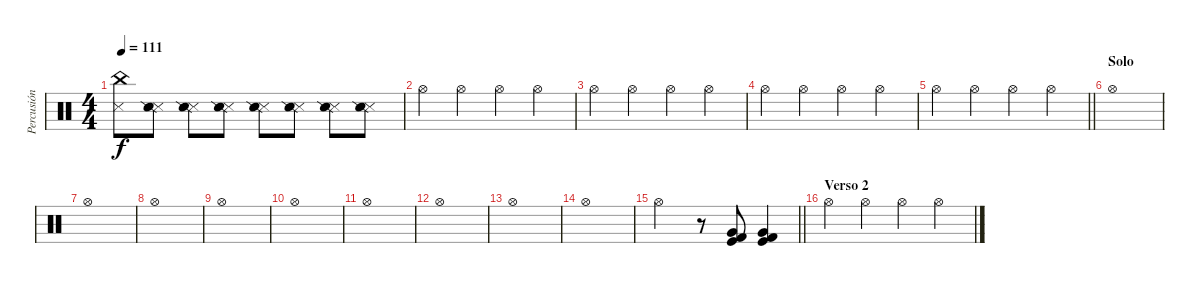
\track ("Percusión" "Percusión") {instrument percussion}
\staff {score}
\articulation defaults
\ts (4 4)
\tempo 111
\clef neutral
\ks c
("Snare (side stick) 3" "China (hit)").8{dy f} ("Snare (side stick) 3" "Snare (side stick) 2").8 ("Snare (side stick) 3" "Snare (side stick) 2").8 ("Snare (side stick) 3" "Snare (side stick) 2").8 ("Snare (side stick) 3" "Snare (side stick) 2").8 ("Snare (side stick) 3" "Snare (side stick) 2").8 ("Snare (side stick) 3" "Snare (side stick) 2").8 ("Snare (side stick) 3" "Snare (side stick) 2").8 |
"Hi-Hat (open)".4 "Hi-Hat (open)".4 "Hi-Hat (open)".4 "Hi-Hat (open)".4 |
"Hi-Hat (open)".4 "Hi-Hat (open)".4 "Hi-Hat (open)".4 "Hi-Hat (open)".4 |
"Hi-Hat (open)".4 "Hi-Hat (open)".4 "Hi-Hat (open)".4 "Hi-Hat (open)".4 |
\barLineRight lightlight "Hi-Hat (open)".4 "Hi-Hat (open)".4 "Hi-Hat (open)".4 "Hi-Hat (open)".4
|
\section ("" "Solo")
"Hi-Hat (open)".1 |
"Hi-Hat (open)".1 |
"Hi-Hat (open)".1 |
"Hi-Hat (open)".1 |
"Hi-Hat (open)".1 |
"Hi-Hat (open)".1 |
"Hi-Hat (open)".1 |
"Hi-Hat (open)".1 |
"Hi-Hat (open)".1 |
\barLineRight lightlight "Hi-Hat (open)".2
r.8 ("Kick (hit)" "Kick (hit) 2" "Very Low Tom (hit)").8{volume 16} ("Kick (hit)" "Kick (hit) 2" "Very Low Tom (hit)").4 |
\section ("" "Verso 2")
"Hi-Hat (open)".4 "Hi-Hat (open)".4 "Hi-Hat (open)".4 "Hi-Hat (open)".4
